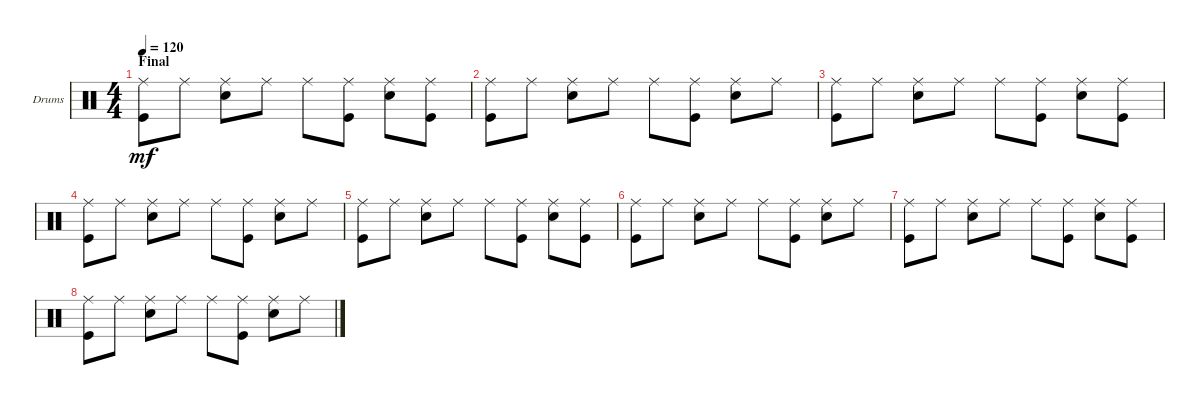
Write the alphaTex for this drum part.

\defaultSystemsLayout 4
\bracketExtendMode groupsimilarinstruments
\firstSystemTrackNameOrientation horizontal
\otherSystemsTrackNameOrientation horizontal
\track ("Drumkit" "Drums") {instrument percussion}
\staff {score}
\articulation defaults
\ts (4 4)
\section ("" "Final")
\tempo 120
\clef neutral
\ks c
("Ride (middle)" "Kick (hit)").8{dy mf} "Ride (middle)".8 ("Ride (middle)" "Snare (hit) 2").8 "Ride (middle)".8 "Ride (middle)".8 ("Ride (middle)" "Kick (hit)").8 ("Ride (middle)" "Snare (hit) 2").8 ("Ride (middle)" "Kick (hit)").8 |
("Ride (middle)" "Kick (hit)").8 "Ride (middle)".8 ("Ride (middle)" "Snare (hit) 2").8 "Ride (middle)".8 "Ride (middle)".8 ("Ride (middle)" "Kick (hit)").8 ("Ride (middle)" "Snare (hit) 2").8 "Ride (middle)".8 |
("Ride (middle)" "Kick (hit)").8 "Ride (middle)".8 ("Ride (middle)" "Snare (hit) 2").8 "Ride (middle)".8 "Ride (middle)".8 ("Ride (middle)" "Kick (hit)").8 ("Ride (middle)" "Snare (hit) 2").8 ("Ride (middle)" "Kick (hit)").8 |
("Ride (middle)" "Kick (hit)").8 "Ride (middle)".8 ("Ride (middle)" "Snare (hit) 2").8 "Ride (middle)".8 "Ride (middle)".8 ("Ride (middle)" "Kick (hit)").8 ("Ride (middle)" "Snare (hit) 2").8 "Ride (middle)".8 |
("Ride (middle)" "Kick (hit)").8 "Ride (middle)".8 ("Ride (middle)" "Snare (hit) 2").8 "Ride (middle)".8 "Ride (middle)".8 ("Ride (middle)" "Kick (hit)").8 ("Ride (middle)" "Snare (hit) 2").8 ("Ride (middle)" "Kick (hit)").8 |
("Ride (middle)" "Kick (hit)").8 "Ride (middle)".8 ("Ride (middle)" "Snare (hit) 2").8 "Ride (middle)".8 "Ride (middle)".8 ("Ride (middle)" "Kick (hit)").8 ("Ride (middle)" "Snare (hit) 2").8 "Ride (middle)".8 |
("Ride (middle)" "Kick (hit)").8 "Ride (middle)".8 ("Ride (middle)" "Snare (hit) 2").8 "Ride (middle)".8 "Ride (middle)".8 ("Ride (middle)" "Kick (hit)").8 ("Ride (middle)" "Snare (hit) 2").8 ("Ride (middle)" "Kick (hit)").8 |
("Ride (middle)" "Kick (hit)").8 "Ride (middle)".8 ("Ride (middle)" "Snare (hit) 2").8 "Ride (middle)".8 "Ride (middle)".8 ("Ride (middle)" "Kick (hit)").8 ("Ride (middle)" "Snare (hit) 2").8 "Ride (middle)".8
